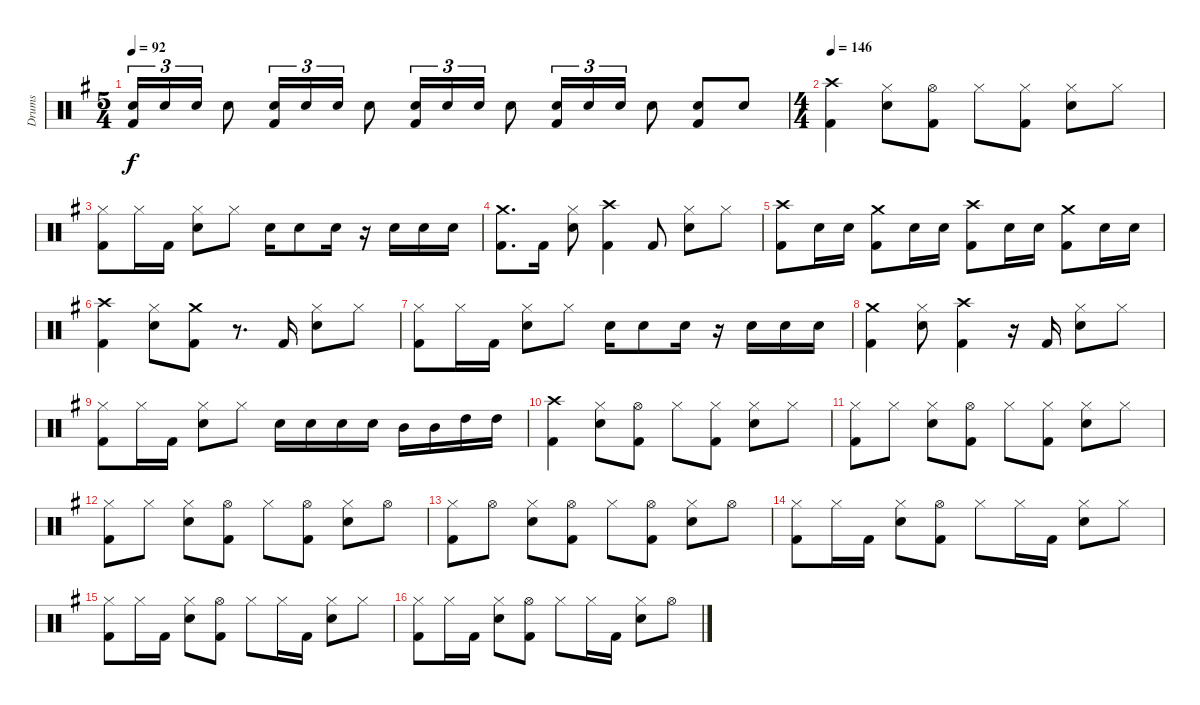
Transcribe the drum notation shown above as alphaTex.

\track ("Drums" "Drums") {instrument percussion}
\staff {score}
\articulation defaults
\ts (5 4)
\tempo 92
\clef neutral
\ks g
("Kick (hit) 2" "Snare (hit) 2").16{tu (3 2) dy f} "Snare (hit) 2".16{tu (3 2)} "Snare (hit) 2".16{tu (3 2)} "Snare (hit) 2".8 ("Kick (hit) 2" "Snare (hit) 2").16{tu (3 2)} "Snare (hit) 2".16{tu (3 2)} "Snare (hit) 2".16{tu (3 2)} "Snare (hit) 2".8 ("Kick (hit) 2" "Snare (hit) 2").16{tu (3 2)} "Snare (hit) 2".16{tu (3 2)} "Snare (hit) 2".16{tu (3 2)} "Snare (hit) 2".8 ("Kick (hit) 2" "Snare (hit) 2").16{tu (3 2)} "Snare (hit) 2".16{tu (3 2)} "Snare (hit) 2".16{tu (3 2)} "Snare (hit) 2".8 ("Kick (hit) 2" "Snare (hit) 2").8 "Snare (hit) 2".8 |
\ts (4 4)
\tempo 146
("Kick (hit) 2" "Crash high (hit)").4 ("Snare (hit) 2" "Hi-Hat (closed)").8 ("Kick (hit) 2" "Hi-Hat (open)").8 "Hi-Hat (closed)".8 ("Kick (hit) 2" "Hi-Hat (closed)").8 ("Snare (hit) 2" "Hi-Hat (closed)").8 "Hi-Hat (closed)".8 |
("Kick (hit) 2" "Hi-Hat (closed)").8 "Hi-Hat (closed)".16 "Kick (hit) 2".16 ("Snare (hit) 2" "Hi-Hat (closed)").8 "Hi-Hat (closed)".8 "Snare (hit) 2".16 "Snare (hit) 2".8 "Snare (hit) 2".16 r.16 "Snare (hit) 2".16 "Snare (hit) 2".16 "Snare (hit) 2".16 |
("Kick (hit) 2" "Crash medium (hit)").8{d} "Kick (hit) 2".16 ("Snare (hit) 2" "Hi-Hat (closed)").8 ("Kick (hit) 2" "Crash high (hit)").4 "Kick (hit) 2".8 ("Snare (hit) 2" "Hi-Hat (closed)").8 "Hi-Hat (closed)".8 |
("Kick (hit) 2" "Crash high (hit)").8 "Snare (hit) 2".16 "Snare (hit) 2".16 ("Kick (hit) 2" "Crash medium (hit)").8 "Snare (hit) 2".16 "Snare (hit) 2".16 ("Kick (hit) 2" "Crash high (hit)").8 "Snare (hit) 2".16 "Snare (hit) 2".16 ("Kick (hit) 2" "Crash medium (hit)").8 "Snare (hit) 2".16 "Snare (hit) 2".16 |
("Kick (hit) 2" "Crash high (hit)").4 ("Snare (hit) 2" "Hi-Hat (closed)").8 ("Kick (hit) 2" "Crash medium (hit)").8 r.8{d} "Kick (hit) 2".16 ("Snare (hit) 2" "Hi-Hat (closed)").8 "Hi-Hat (closed)".8 |
("Kick (hit) 2" "Hi-Hat (closed)").8 "Hi-Hat (closed)".16 "Kick (hit) 2".16 ("Snare (hit) 2" "Hi-Hat (closed)").8 "Hi-Hat (closed)".8 "Snare (hit) 2".16 "Snare (hit) 2".8 "Snare (hit) 2".16 r.16 "Snare (hit) 2".16 "Snare (hit) 2".16 "Snare (hit) 2".16 |
("Kick (hit) 2" "Crash medium (hit)").4 ("Snare (hit) 2" "Hi-Hat (closed)").8 ("Kick (hit) 2" "Crash high (hit)").4 r.16 "Kick (hit) 2".16 ("Snare (hit) 2" "Hi-Hat (closed)").8 "Hi-Hat (closed)".8 |
("Kick (hit) 2" "Hi-Hat (closed)").8 "Hi-Hat (closed)".16 "Kick (hit) 2".16 ("Snare (hit) 2" "Hi-Hat (closed)").8 "Hi-Hat (closed)".8 "Snare (hit) 2".16 "Snare (hit) 2".16 "Snare (hit) 2".16 "Snare (hit) 2".16 "Mid Tom (hit)".16 "Mid Tom (hit)".16 "High Tom (hit)".16 "High Tom (hit)".16 |
("Kick (hit) 2" "Crash high (hit)").4 ("Snare (hit) 2" "Hi-Hat (closed)").8 ("Kick (hit) 2" "Hi-Hat (open)").8 "Hi-Hat (closed)".8 ("Kick (hit) 2" "Hi-Hat (closed)").8 ("Snare (hit) 2" "Hi-Hat (closed)").8 "Hi-Hat (closed)".8 |
("Kick (hit) 2" "Hi-Hat (closed)").8 "Hi-Hat (closed)".8 ("Snare (hit) 2" "Hi-Hat (closed)").8 ("Kick (hit) 2" "Hi-Hat (open)").8 "Hi-Hat (closed)".8 ("Kick (hit) 2" "Hi-Hat (closed)").8 ("Snare (hit) 2" "Hi-Hat (closed)").8 "Hi-Hat (closed)".8 |
("Kick (hit) 2" "Hi-Hat (closed)").8 "Hi-Hat (closed)".8 ("Snare (hit) 2" "Hi-Hat (closed)").8 ("Kick (hit) 2" "Hi-Hat (open)").8 "Hi-Hat (closed)".8 ("Kick (hit) 2" "Hi-Hat (open)").8 ("Snare (hit) 2" "Hi-Hat (closed)").8 "Hi-Hat (open)".8 |
("Kick (hit) 2" "Hi-Hat (closed)").8 "Hi-Hat (open)".8 ("Snare (hit) 2" "Hi-Hat (closed)").8 ("Kick (hit) 2" "Hi-Hat (open)").8 "Hi-Hat (closed)".8 ("Kick (hit) 2" "Hi-Hat (open)").8 ("Snare (hit) 2" "Hi-Hat (closed)").8 "Hi-Hat (open)".8 |
("Kick (hit) 2" "Hi-Hat (closed)").8 "Hi-Hat (closed)".16 "Kick (hit) 2".16 ("Snare (hit) 2" "Hi-Hat (closed)").8 ("Kick (hit) 2" "Hi-Hat (open)").8 "Hi-Hat (closed)".8 "Hi-Hat (closed)".16 "Kick (hit) 2".16 ("Snare (hit) 2" "Hi-Hat (closed)").8 "Hi-Hat (closed)".8 |
("Kick (hit) 2" "Hi-Hat (closed)").8 "Hi-Hat (closed)".16 "Kick (hit) 2".16 ("Snare (hit) 2" "Hi-Hat (closed)").8 ("Kick (hit) 2" "Hi-Hat (open)").8 "Hi-Hat (closed)".8 "Hi-Hat (closed)".16 "Kick (hit) 2".16 ("Snare (hit) 2" "Hi-Hat (closed)").8 "Hi-Hat (closed)".8 |
("Kick (hit) 2" "Hi-Hat (closed)").8 "Hi-Hat (closed)".16 "Kick (hit) 2".16 ("Snare (hit) 2" "Hi-Hat (closed)").8 ("Kick (hit) 2" "Hi-Hat (open)").8 "Hi-Hat (closed)".8 "Hi-Hat (closed)".16 "Kick (hit) 2".16 ("Snare (hit) 2" "Hi-Hat (closed)").8 "Hi-Hat (open)".8
